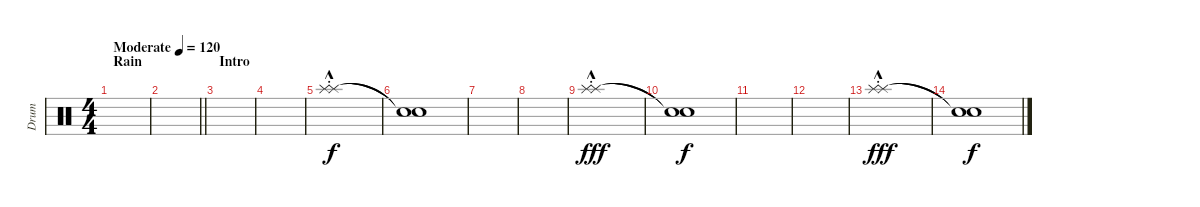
\track ("Drum" "Drum") {instrument percussion}
\staff {score}
\articulation defaults
\ts (4 4)
\section ("" "Rain")
\tempo (120 "Moderate")
\clef neutral
\ks c
|
\barLineRight lightlight
|
\section ("" "Intro")
|
|
("Splash (hit)"{hac st} "Splash (hit)"{hac}).1{volume 16} |
("Snare (hit)"{t} "Snare (hit)"{t}).1{dy f} |
|
|
("Splash (hit)"{hac st} "Splash (hit)"{hac}).1{dy fff volume 16} |
("Snare (hit)"{t} "Snare (hit)"{t}).1{dy f} |
|
|
("Splash (hit)"{hac st} "Splash (hit)"{hac}).1{dy fff volume 16} |
("Snare (hit)"{t} "Snare (hit)"{t}).1{dy f}
